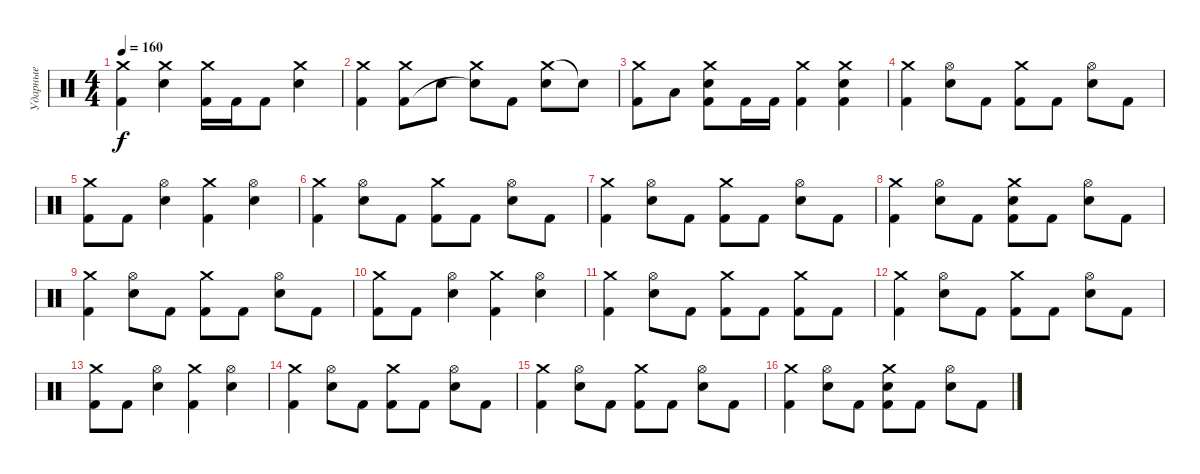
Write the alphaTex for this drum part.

\track ("Ударные" "Ударные") {instrument percussion}
\staff {score}
\articulation defaults
\ts (4 4)
\tempo 160
\clef neutral
\ks c
("Crash medium (hit)" "Kick (hit) 2").4{dy f} ("Crash medium (hit)" "Snare (hit) 2").4 ("Crash medium (hit)" "Kick (hit) 2").16 "Kick (hit) 2".16 "Kick (hit) 2".8 ("Crash medium (hit)" "Snare (hit) 2").4 |
("Crash medium (hit)" "Kick (hit) 2").4 ("Crash medium (hit)" "Kick (hit) 2").8 "Snare (hit) 2".8 ("Crash medium (hit)" "Snare (hit)"{t}).8 "Kick (hit) 2".8 ("Crash medium (hit)" "Snare (hit) 2").8 "Snare (hit)"{t}.8 |
("Crash medium (hit)" "Kick (hit) 2").8 "Low Tom (hit)".8 ("Crash medium (hit)" "Snare (hit) 2" "Kick (hit) 2").8 "Kick (hit) 2".16 "Kick (hit) 2".16 ("Crash medium (hit)" "Kick (hit) 2").4 ("Crash medium (hit)" "Snare (hit) 2" "Kick (hit) 2").4 |
("Crash medium (hit)" "Kick (hit) 2").4 ("Hi-Hat (open)" "Snare (hit) 2").8 "Kick (hit) 2".8 ("Crash medium (hit)" "Kick (hit) 2").8 "Kick (hit) 2".8 ("Hi-Hat (open)" "Snare (hit) 2").8 "Kick (hit) 2".8 |
("Crash medium (hit)" "Kick (hit) 2").8 "Kick (hit) 2".8 ("Hi-Hat (open)" "Snare (hit) 2").4 ("Crash medium (hit)" "Kick (hit) 2").4 ("Hi-Hat (open)" "Snare (hit) 2").4 |
("Crash medium (hit)" "Kick (hit) 2").4 ("Hi-Hat (open)" "Snare (hit) 2").8 "Kick (hit) 2".8 ("Crash medium (hit)" "Kick (hit) 2").8 "Kick (hit) 2".8 ("Hi-Hat (open)" "Snare (hit) 2").8 "Kick (hit) 2".8 |
("Crash medium (hit)" "Kick (hit) 2").4 ("Hi-Hat (open)" "Snare (hit) 2").8 "Kick (hit) 2".8 ("Crash medium (hit)" "Kick (hit) 2").8 "Kick (hit) 2".8 ("Hi-Hat (open)" "Snare (hit) 2").8 "Kick (hit) 2".8 |
("Crash medium (hit)" "Kick (hit) 2").4 ("Hi-Hat (open)" "Snare (hit) 2").8 "Kick (hit) 2".8 ("Crash medium (hit)" "Snare (hit) 2" "Kick (hit) 2").8 "Kick (hit) 2".8 ("Hi-Hat (open)" "Snare (hit) 2").8 "Kick (hit) 2".8 |
("Crash medium (hit)" "Kick (hit) 2").4 ("Hi-Hat (open)" "Snare (hit) 2").8 "Kick (hit) 2".8 ("Crash medium (hit)" "Kick (hit) 2").8 "Kick (hit) 2".8 ("Hi-Hat (open)" "Snare (hit) 2").8 "Kick (hit) 2".8 |
("Crash medium (hit)" "Kick (hit) 2").8 "Kick (hit) 2".8 ("Hi-Hat (open)" "Snare (hit) 2").4 ("Crash medium (hit)" "Kick (hit) 2").4 ("Hi-Hat (open)" "Snare (hit) 2").4 |
("Crash medium (hit)" "Kick (hit) 2").4 ("Hi-Hat (open)" "Snare (hit) 2").8 "Kick (hit) 2".8 ("Crash medium (hit)" "Kick (hit) 2").8 "Kick (hit) 2".8 ("Crash medium (hit)" "Kick (hit) 2").8 "Kick (hit) 2".8 |
("Crash medium (hit)" "Kick (hit) 2").4 ("Hi-Hat (open)" "Snare (hit) 2").8 "Kick (hit) 2".8 ("Crash medium (hit)" "Kick (hit) 2").8 "Kick (hit) 2".8 ("Hi-Hat (open)" "Snare (hit) 2").8 "Kick (hit) 2".8 |
("Crash medium (hit)" "Kick (hit) 2").8 "Kick (hit) 2".8 ("Hi-Hat (open)" "Snare (hit) 2").4 ("Crash medium (hit)" "Kick (hit) 2").4 ("Hi-Hat (open)" "Snare (hit) 2").4 |
("Crash medium (hit)" "Kick (hit) 2").4 ("Hi-Hat (open)" "Snare (hit) 2").8 "Kick (hit) 2".8 ("Crash medium (hit)" "Kick (hit) 2").8 "Kick (hit) 2".8 ("Hi-Hat (open)" "Snare (hit) 2").8 "Kick (hit) 2".8 |
("Crash medium (hit)" "Kick (hit) 2").4 ("Hi-Hat (open)" "Snare (hit) 2").8 "Kick (hit) 2".8 ("Crash medium (hit)" "Kick (hit) 2").8 "Kick (hit) 2".8 ("Hi-Hat (open)" "Snare (hit) 2").8 "Kick (hit) 2".8 |
("Crash medium (hit)" "Kick (hit) 2").4 ("Hi-Hat (open)" "Snare (hit) 2").8 "Kick (hit) 2".8 ("Crash medium (hit)" "Snare (hit) 2" "Kick (hit) 2").8 "Kick (hit) 2".8 ("Hi-Hat (open)" "Snare (hit) 2").8 "Kick (hit) 2".8
